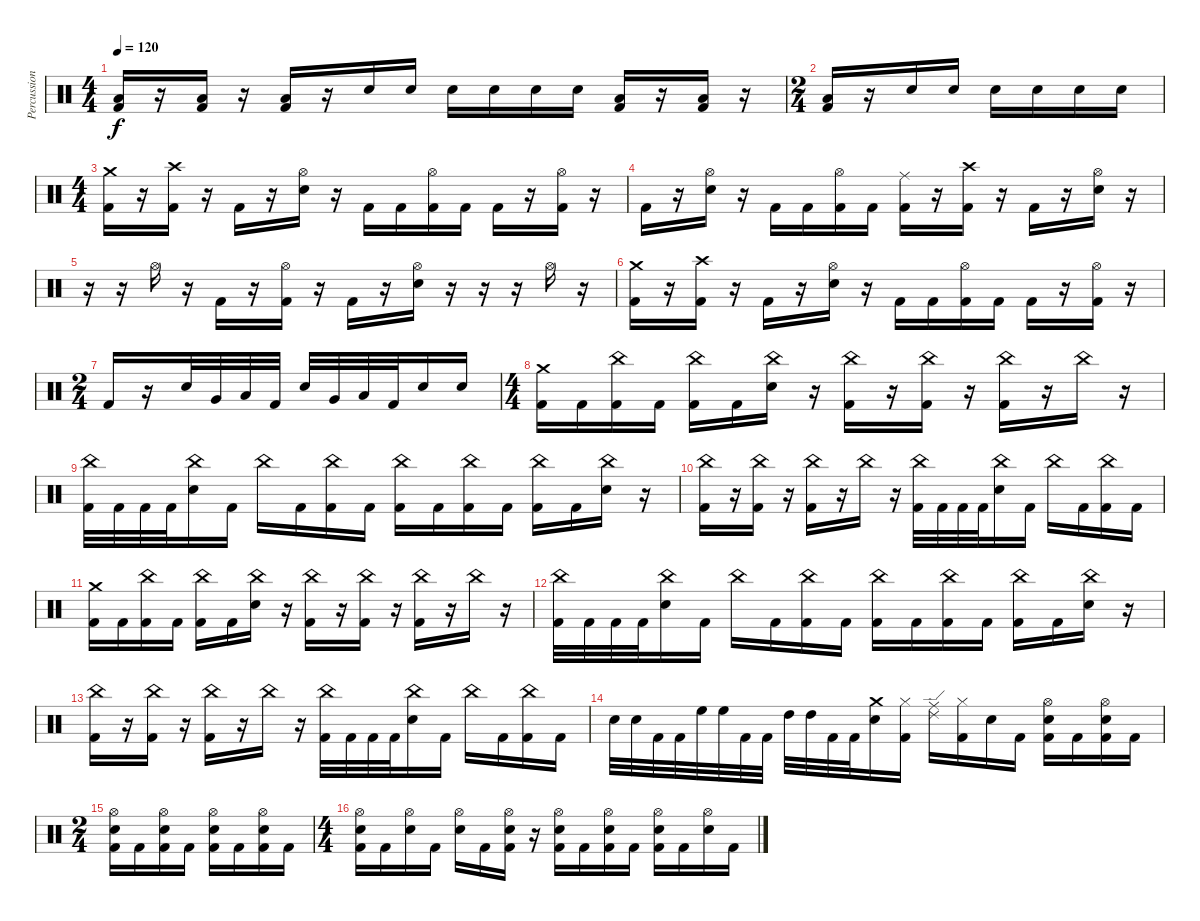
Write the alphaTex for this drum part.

\track ("Percussion" "Percussion") {instrument percussion}
\staff {score}
\articulation defaults
\ts (4 4)
\tempo 120
\clef neutral
\ks c
("Low Floor Tom (hit)" "Kick (hit) 2").16{dy f} r.16 ("Low Floor Tom (hit)" "Kick (hit) 2").16 r.16 ("Low Floor Tom (hit)" "Kick (hit) 2").16 r.16 "Electric Snare (hit)".16 "Electric Snare (hit)".16 "Electric Snare (hit)".16 "Electric Snare (hit)".16 "Electric Snare (hit)".16 "Electric Snare (hit)".16 ("Low Floor Tom (hit)" "Kick (hit) 2").16 r.16 ("Low Floor Tom (hit)" "Kick (hit) 2").16 r.16 |
\ts (2 4)
("Low Floor Tom (hit)" "Kick (hit) 2").16 r.16 "Electric Snare (hit)".16 "Electric Snare (hit)".16 "Electric Snare (hit)".16 "Electric Snare (hit)".16 "Electric Snare (hit)".16 "Electric Snare (hit)".16 |
\ts (4 4)
("Crash medium (hit)" "Kick (hit) 2").16 r.16 ("Crash high (hit)" "Kick (hit) 2").16 r.16 "Kick (hit) 2".16 r.16 ("Hi-Hat (open)" "Electric Snare (hit)").16 r.16 "Kick (hit) 2".16 "Kick (hit) 2".16 ("Hi-Hat (open)" "Kick (hit) 2").16 "Kick (hit) 2".16 "Kick (hit) 2".16 r.16 ("Hi-Hat (open)" "Kick (hit) 2").16 r.16 |
"Kick (hit) 2".16 r.16 ("Hi-Hat (open)" "Electric Snare (hit)").16 r.16 "Kick (hit) 2".16 "Kick (hit) 2".16 ("Hi-Hat (open)" "Kick (hit) 2").16 "Kick (hit) 2".16 ("Ride (middle)" "Kick (hit) 2").16 r.16 ("Crash high (hit)" "Kick (hit) 2").16 r.16 "Kick (hit) 2".16 r.16 ("Hi-Hat (open)" "Electric Snare (hit)").16 r.16 |
r.16 r.16 "Hi-Hat (open)".16 r.16 "Kick (hit) 2".16 r.16 ("Hi-Hat (open)" "Kick (hit) 2").16 r.16 "Kick (hit) 2".16 r.16 ("Hi-Hat (open)" "Electric Snare (hit)").16 r.16 r.16 r.16 "Hi-Hat (open)".16 r.16 |
("Crash medium (hit)" "Kick (hit) 2").16 r.16 ("Crash high (hit)" "Kick (hit) 2").16 r.16 "Kick (hit) 2".16 r.16 ("Hi-Hat (open)" "Electric Snare (hit)").16 r.16 "Kick (hit) 2".16 "Kick (hit) 2".16 ("Hi-Hat (open)" "Kick (hit) 2").16 "Kick (hit) 2".16 "Kick (hit) 2".16 r.16 ("Hi-Hat (open)" "Kick (hit) 2").16 r.16 |
\ts (2 4)
"Kick (hit) 2".16 r.16 "Electric Snare (hit)".32 "Very Low Tom (hit)".32 "Low Floor Tom (hit)".32 "Kick (hit) 2".32 "Electric Snare (hit)".32 "Very Low Tom (hit)".32 "Low Floor Tom (hit)".32 "Kick (hit) 2".32 "Electric Snare (hit)".16 "Electric Snare (hit)".16 |
\ts (4 4)
("Crash medium (hit)" "Kick (hit) 2").16 "Kick (hit) 2".16 ("China (hit)" "Kick (hit) 2").16 "Kick (hit) 2".16 ("China (hit)" "Kick (hit) 2").16 "Kick (hit) 2".16 ("China (hit)" "Electric Snare (hit)").16 r.16 ("China (hit)" "Kick (hit) 2").16 r.16 ("China (hit)" "Kick (hit) 2").16 r.16 ("China (hit)" "Kick (hit) 2").16 r.16 "China (hit)".16 r.16 |
("China (hit)" "Kick (hit) 2").32 "Kick (hit) 2".32 "Kick (hit) 2".32 "Kick (hit) 2".32 ("China (hit)" "Electric Snare (hit)").16 "Kick (hit) 2".16 "China (hit)".16 "Kick (hit) 2".16 ("China (hit)" "Kick (hit) 2").16 "Kick (hit) 2".16 ("China (hit)" "Kick (hit) 2").16 "Kick (hit) 2".16 ("China (hit)" "Kick (hit) 2").16 "Kick (hit) 2".16 ("China (hit)" "Kick (hit) 2").16 "Kick (hit) 2".16 ("China (hit)" "Electric Snare (hit)").16 r.16 |
("China (hit)" "Kick (hit) 2").16 r.16 ("China (hit)" "Kick (hit) 2").16 r.16 ("China (hit)" "Kick (hit) 2").16 r.16 "China (hit)".16 r.16 ("China (hit)" "Kick (hit) 2").32 "Kick (hit) 2".32 "Kick (hit) 2".32 "Kick (hit) 2".32 ("China (hit)" "Electric Snare (hit)").16 "Kick (hit) 2".16 "China (hit)".16 "Kick (hit) 2".16 ("China (hit)" "Kick (hit) 2").16 "Kick (hit) 2".16 |
("Crash medium (hit)" "Kick (hit) 2").16 "Kick (hit) 2".16 ("China (hit)" "Kick (hit) 2").16 "Kick (hit) 2".16 ("China (hit)" "Kick (hit) 2").16 "Kick (hit) 2".16 ("China (hit)" "Electric Snare (hit)").16 r.16 ("China (hit)" "Kick (hit) 2").16 r.16 ("China (hit)" "Kick (hit) 2").16 r.16 ("China (hit)" "Kick (hit) 2").16 r.16 "China (hit)".16 r.16 |
("China (hit)" "Kick (hit) 2").32 "Kick (hit) 2".32 "Kick (hit) 2".32 "Kick (hit) 2".32 ("China (hit)" "Electric Snare (hit)").16 "Kick (hit) 2".16 "China (hit)".16 "Kick (hit) 2".16 ("China (hit)" "Kick (hit) 2").16 "Kick (hit) 2".16 ("China (hit)" "Kick (hit) 2").16 "Kick (hit) 2".16 ("China (hit)" "Kick (hit) 2").16 "Kick (hit) 2".16 ("China (hit)" "Kick (hit) 2").16 "Kick (hit) 2".16 ("China (hit)" "Electric Snare (hit)").16 r.16 |
("China (hit)" "Kick (hit) 2").16 r.16 ("China (hit)" "Kick (hit) 2").16 r.16 ("China (hit)" "Kick (hit) 2").16 r.16 "China (hit)".16 r.16 ("China (hit)" "Kick (hit) 2").32 "Kick (hit) 2".32 "Kick (hit) 2".32 "Kick (hit) 2".32 ("China (hit)" "Electric Snare (hit)").16 "Kick (hit) 2".16 "China (hit)".16 "Kick (hit) 2".16 ("China (hit)" "Kick (hit) 2").16 "Kick (hit) 2".16 |
"Electric Snare (hit)".32 "Electric Snare (hit)".32 "Kick (hit) 2".32 "Kick (hit) 2".32 "High Floor Tom (hit)".32 "High Floor Tom (hit)".32 "Kick (hit) 2".32 "Kick (hit) 2".32 "High Tom (hit)".32 "High Tom (hit)".32 "Kick (hit) 2".32 "Kick (hit) 2".32 ("Crash medium (hit)" "Electric Snare (hit)").16 ("Hi-Hat (closed)" "Kick (hit) 2").16 ("Ride (middle)" "Ride (edge) 2").16 ("Hi-Hat (closed)" "Kick (hit) 2").16 "Electric Snare (hit)".16 "Kick (hit) 2".16 ("Hi-Hat (open)" "Electric Snare (hit)" "Kick (hit) 2").16 "Kick (hit) 2".16 ("Hi-Hat (open)" "Electric Snare (hit)" "Kick (hit) 2").16 "Kick (hit) 2".16 |
\ts (2 4)
("Hi-Hat (open)" "Electric Snare (hit)" "Kick (hit) 2").16 "Kick (hit) 2".16 ("Hi-Hat (open)" "Electric Snare (hit)" "Kick (hit) 2").16 "Kick (hit) 2".16 ("Hi-Hat (open)" "Electric Snare (hit)" "Kick (hit) 2").16 "Kick (hit) 2".16 ("Hi-Hat (open)" "Electric Snare (hit)" "Kick (hit) 2").16 "Kick (hit) 2".16 |
\ts (4 4)
("Hi-Hat (open)" "Electric Snare (hit)" "Kick (hit) 2").16 "Kick (hit) 2".16 ("Hi-Hat (open)" "Electric Snare (hit)").16 "Kick (hit) 2".16 ("Hi-Hat (open)" "Electric Snare (hit)").16 "Kick (hit) 2".16 ("Hi-Hat (open)" "Electric Snare (hit)" "Kick (hit) 2").16 r.16 ("Hi-Hat (open)" "Electric Snare (hit)" "Kick (hit) 2").16 "Kick (hit) 2".16 ("Hi-Hat (open)" "Electric Snare (hit)" "Kick (hit) 2").16 "Kick (hit) 2".16 ("Hi-Hat (open)" "Electric Snare (hit)" "Kick (hit) 2").16 "Kick (hit) 2".16 ("Hi-Hat (open)" "Electric Snare (hit)").16 "Kick (hit) 2".16
